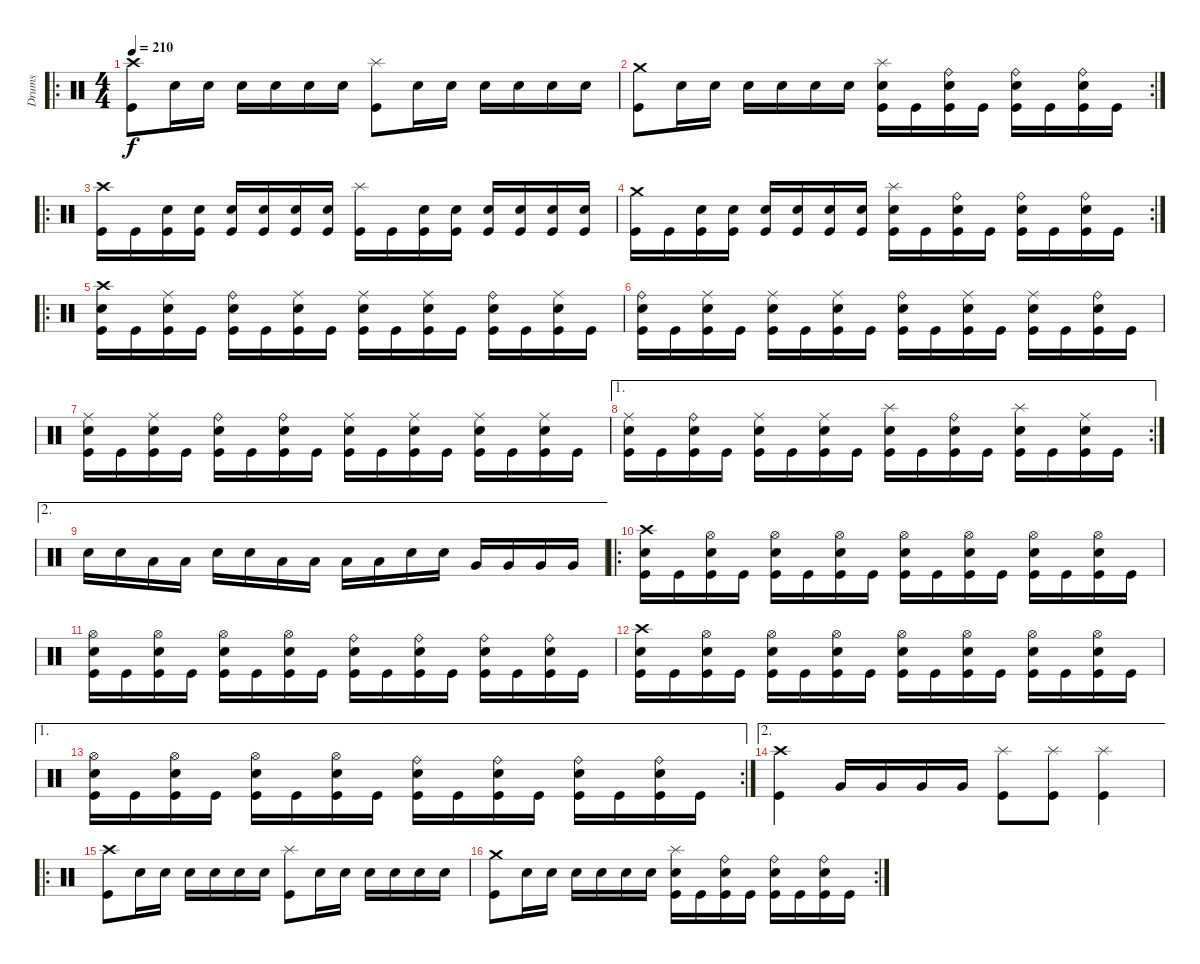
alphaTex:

\track ("Drums" "Drums") {instrument percussion}
\staff {score}
\articulation defaults
\ro
\ts (4 4)
\tempo 210
\clef neutral
\ks c
("Crash high (hit)" "Kick (hit)").8{dy f} "Electric Snare (hit)".16 "Electric Snare (hit)".16 "Electric Snare (hit)".16 "Electric Snare (hit)".16 "Electric Snare (hit)".16 "Electric Snare (hit)".16 ("Splash (hit)" "Kick (hit)").8 "Electric Snare (hit)".16 "Electric Snare (hit)".16 "Electric Snare (hit)".16 "Electric Snare (hit)".16 "Electric Snare (hit)".16 "Electric Snare (hit)".16 |
\rc 2
("Crash medium (hit)" "Kick (hit)").8 "Electric Snare (hit)".16 "Electric Snare (hit)".16 "Electric Snare (hit)".16 "Electric Snare (hit)".16 "Electric Snare (hit)".16 "Electric Snare (hit)".16 ("Splash (hit)" "Electric Snare (hit)" "Kick (hit)").16 "Kick (hit)".16 ("Ride (bell)" "Electric Snare (hit)" "Kick (hit)").16 "Kick (hit)".16 ("Ride (bell)" "Electric Snare (hit)" "Kick (hit)").16 "Kick (hit)".16 ("Ride (bell)" "Electric Snare (hit)" "Kick (hit)").16 "Kick (hit)".16 |
\ro
("Crash high (hit)" "Kick (hit)").16 "Kick (hit)".16 ("Electric Snare (hit)" "Kick (hit)").16 ("Electric Snare (hit)" "Kick (hit)").16 ("Electric Snare (hit)" "Kick (hit)").16 ("Electric Snare (hit)" "Kick (hit)").16 ("Electric Snare (hit)" "Kick (hit)").16 ("Electric Snare (hit)" "Kick (hit)").16 ("Splash (hit)" "Kick (hit)").16 "Kick (hit)".16 ("Electric Snare (hit)" "Kick (hit)").16 ("Electric Snare (hit)" "Kick (hit)").16 ("Electric Snare (hit)" "Kick (hit)").16 ("Electric Snare (hit)" "Kick (hit)").16 ("Electric Snare (hit)" "Kick (hit)").16 ("Electric Snare (hit)" "Kick (hit)").16 |
\rc 2
("Crash medium (hit)" "Kick (hit)").16 "Kick (hit)".16 ("Electric Snare (hit)" "Kick (hit)").16 ("Electric Snare (hit)" "Kick (hit)").16 ("Electric Snare (hit)" "Kick (hit)").16 ("Electric Snare (hit)" "Kick (hit)").16 ("Electric Snare (hit)" "Kick (hit)").16 ("Electric Snare (hit)" "Kick (hit)").16 ("Splash (hit)" "Electric Snare (hit)" "Kick (hit)").16 "Kick (hit)".16 ("Ride (bell)" "Electric Snare (hit)" "Kick (hit)").16 "Kick (hit)".16 ("Ride (bell)" "Electric Snare (hit)" "Kick (hit)").16 "Kick (hit)".16 ("Ride (bell)" "Electric Snare (hit)" "Kick (hit)").16 "Kick (hit)".16 |
\ro
("Crash high (hit)" "Electric Snare (hit)" "Kick (hit)").16 "Kick (hit)".16 ("Ride (middle)" "Electric Snare (hit)" "Kick (hit)").16 "Kick (hit)".16 ("Ride (bell)" "Electric Snare (hit)" "Kick (hit)").16 "Kick (hit)".16 ("Ride (middle)" "Electric Snare (hit)" "Kick (hit)").16 "Kick (hit)".16 ("Ride (middle)" "Electric Snare (hit)" "Kick (hit)").16 "Kick (hit)".16 ("Ride (middle)" "Electric Snare (hit)" "Kick (hit)").16 "Kick (hit)".16 ("Ride (bell)" "Electric Snare (hit)" "Kick (hit)").16 "Kick (hit)".16 ("Ride (middle)" "Electric Snare (hit)" "Kick (hit)").16 "Kick (hit)".16 |
("Ride (bell)" "Electric Snare (hit)" "Kick (hit)").16 "Kick (hit)".16 ("Ride (middle)" "Electric Snare (hit)" "Kick (hit)").16 "Kick (hit)".16 ("Ride (middle)" "Electric Snare (hit)" "Kick (hit)").16 "Kick (hit)".16 ("Ride (middle)" "Electric Snare (hit)" "Kick (hit)").16 "Kick (hit)".16 ("Ride (bell)" "Electric Snare (hit)" "Kick (hit)").16 "Kick (hit)".16 ("Ride (middle)" "Electric Snare (hit)" "Kick (hit)").16 "Kick (hit)".16 ("Ride (middle)" "Electric Snare (hit)" "Kick (hit)").16 "Kick (hit)".16 ("Ride (bell)" "Electric Snare (hit)" "Kick (hit)").16 "Kick (hit)".16 |
("Ride (middle)" "Electric Snare (hit)" "Kick (hit)").16 "Kick (hit)".16 ("Ride (middle)" "Electric Snare (hit)" "Kick (hit)").16 "Kick (hit)".16 ("Ride (bell)" "Electric Snare (hit)" "Kick (hit)").16 "Kick (hit)".16 ("Ride (bell)" "Electric Snare (hit)" "Kick (hit)").16 "Kick (hit)".16 ("Ride (middle)" "Electric Snare (hit)" "Kick (hit)").16 "Kick (hit)".16 ("Ride (middle)" "Electric Snare (hit)" "Kick (hit)").16 "Kick (hit)".16 ("Ride (middle)" "Electric Snare (hit)" "Kick (hit)").16 "Kick (hit)".16 ("Ride (middle)" "Electric Snare (hit)" "Kick (hit)").16 "Kick (hit)".16 |
\ae 1
\rc 2
("Ride (middle)" "Electric Snare (hit)" "Kick (hit)").16 "Kick (hit)".16 ("Ride (bell)" "Electric Snare (hit)" "Kick (hit)").16 "Kick (hit)".16 ("Ride (middle)" "Electric Snare (hit)" "Kick (hit)").16 "Kick (hit)".16 ("Ride (middle)" "Electric Snare (hit)" "Kick (hit)").16 "Kick (hit)".16 ("Splash (hit)" "Electric Snare (hit)" "Kick (hit)").16 "Kick (hit)".16 ("Ride (bell)" "Electric Snare (hit)" "Kick (hit)").16 "Kick (hit)".16 ("Splash (hit)" "Electric Snare (hit)" "Kick (hit)").16 "Kick (hit)".16 ("Ride (middle)" "Electric Snare (hit)" "Kick (hit)").16 "Kick (hit)".16 |
\ae 2 "Electric Snare (hit)".16 "Electric Snare (hit)".16 "Low Tom (hit)".16 "Low Tom (hit)".16 "Electric Snare (hit)".16 "Electric Snare (hit)".16 "Low Tom (hit)".16 "Low Tom (hit)".16 "Low Tom (hit)".16 "Low Tom (hit)".16 "Electric Snare (hit)".16 "Electric Snare (hit)".16 "Very Low Tom (hit)".16 "Very Low Tom (hit)".16 "Very Low Tom (hit)".16 "Very Low Tom (hit)".16
|
\ro
("Crash high (hit)" "Electric Snare (hit)" "Kick (hit)").16 "Kick (hit)".16 ("Hi-Hat (open)" "Electric Snare (hit)" "Kick (hit)").16 "Kick (hit)".16 ("Hi-Hat (open)" "Electric Snare (hit)" "Kick (hit)").16 "Kick (hit)".16 ("Hi-Hat (open)" "Electric Snare (hit)" "Kick (hit)").16 "Kick (hit)".16 ("Hi-Hat (open)" "Electric Snare (hit)" "Kick (hit)").16 "Kick (hit)".16 ("Hi-Hat (open)" "Electric Snare (hit)" "Kick (hit)").16 "Kick (hit)".16 ("Hi-Hat (open)" "Electric Snare (hit)" "Kick (hit)").16 "Kick (hit)".16 ("Hi-Hat (open)" "Electric Snare (hit)" "Kick (hit)").16 "Kick (hit)".16 |
("Hi-Hat (open)" "Electric Snare (hit)" "Kick (hit)").16 "Kick (hit)".16 ("Hi-Hat (open)" "Electric Snare (hit)" "Kick (hit)").16 "Kick (hit)".16 ("Hi-Hat (open)" "Electric Snare (hit)" "Kick (hit)").16 "Kick (hit)".16 ("Hi-Hat (open)" "Electric Snare (hit)" "Kick (hit)").16 "Kick (hit)".16 ("Ride (bell)" "Electric Snare (hit)" "Kick (hit)").16 "Kick (hit)".16 ("Ride (bell)" "Electric Snare (hit)" "Kick (hit)").16 "Kick (hit)".16 ("Ride (bell)" "Electric Snare (hit)" "Kick (hit)").16 "Kick (hit)".16 ("Ride (bell)" "Electric Snare (hit)" "Kick (hit)").16 "Kick (hit)".16 |
("Crash high (hit)" "Electric Snare (hit)" "Kick (hit)").16 "Kick (hit)".16 ("Hi-Hat (open)" "Electric Snare (hit)" "Kick (hit)").16 "Kick (hit)".16 ("Hi-Hat (open)" "Electric Snare (hit)" "Kick (hit)").16 "Kick (hit)".16 ("Hi-Hat (open)" "Electric Snare (hit)" "Kick (hit)").16 "Kick (hit)".16 ("Hi-Hat (open)" "Electric Snare (hit)" "Kick (hit)").16 "Kick (hit)".16 ("Hi-Hat (open)" "Electric Snare (hit)" "Kick (hit)").16 "Kick (hit)".16 ("Hi-Hat (open)" "Electric Snare (hit)" "Kick (hit)").16 "Kick (hit)".16 ("Hi-Hat (open)" "Electric Snare (hit)" "Kick (hit)").16 "Kick (hit)".16 |
\ae 1
\rc 2
("Hi-Hat (open)" "Electric Snare (hit)" "Kick (hit)").16 "Kick (hit)".16 ("Hi-Hat (open)" "Electric Snare (hit)" "Kick (hit)").16 "Kick (hit)".16 ("Hi-Hat (open)" "Electric Snare (hit)" "Kick (hit)").16 "Kick (hit)".16 ("Hi-Hat (open)" "Electric Snare (hit)" "Kick (hit)").16 "Kick (hit)".16 ("Ride (bell)" "Electric Snare (hit)" "Kick (hit)").16 "Kick (hit)".16 ("Ride (bell)" "Electric Snare (hit)" "Kick (hit)").16 "Kick (hit)".16 ("Ride (bell)" "Electric Snare (hit)" "Kick (hit)").16 "Kick (hit)".16 ("Ride (bell)" "Electric Snare (hit)" "Kick (hit)").16 "Kick (hit)".16 |
\ae 2
("Crash high (hit)" "Kick (hit)").4 "Very Low Tom (hit)".16 "Very Low Tom (hit)".16 "Very Low Tom (hit)".16 "Very Low Tom (hit)".16 ("Splash (hit)" "Kick (hit)").8 ("Splash (hit)" "Kick (hit)").8 ("Splash (hit)" "Kick (hit)").4 |
\ro
("Crash high (hit)" "Kick (hit)").8 "Electric Snare (hit)".16 "Electric Snare (hit)".16 "Electric Snare (hit)".16 "Electric Snare (hit)".16 "Electric Snare (hit)".16 "Electric Snare (hit)".16 ("Splash (hit)" "Kick (hit)").8 "Electric Snare (hit)".16 "Electric Snare (hit)".16 "Electric Snare (hit)".16 "Electric Snare (hit)".16 "Electric Snare (hit)".16 "Electric Snare (hit)".16 |
\rc 2
("Crash medium (hit)" "Kick (hit)").8 "Electric Snare (hit)".16 "Electric Snare (hit)".16 "Electric Snare (hit)".16 "Electric Snare (hit)".16 "Electric Snare (hit)".16 "Electric Snare (hit)".16 ("Splash (hit)" "Electric Snare (hit)" "Kick (hit)").16 "Kick (hit)".16 ("Ride (bell)" "Electric Snare (hit)" "Kick (hit)").16 "Kick (hit)".16 ("Ride (bell)" "Electric Snare (hit)" "Kick (hit)").16 "Kick (hit)".16 ("Ride (bell)" "Electric Snare (hit)" "Kick (hit)").16 "Kick (hit)".16
